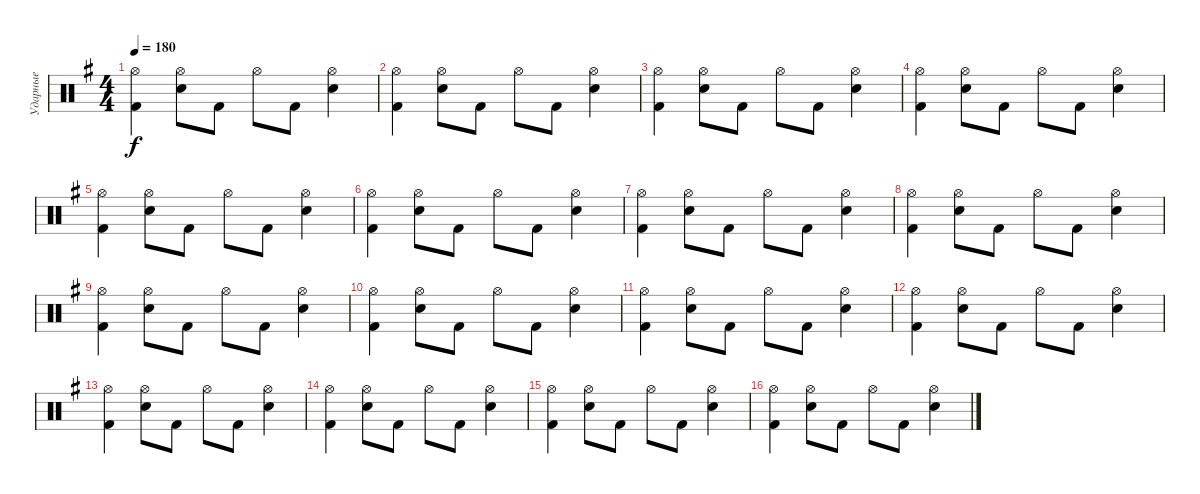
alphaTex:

\track ("Ударные" "Ударные") {instrument percussion}
\staff {score}
\articulation defaults
\ts (4 4)
\tempo 180
\clef neutral
\ks g
("Hi-Hat (open)" "Kick (hit) 2").4{dy f} ("Hi-Hat (open)" "Snare (hit) 2").8 "Kick (hit) 2".8 "Hi-Hat (open)".8 "Kick (hit) 2".8 ("Hi-Hat (open)" "Snare (hit) 2").4 |
("Hi-Hat (open)" "Kick (hit) 2").4 ("Hi-Hat (open)" "Snare (hit) 2").8 "Kick (hit) 2".8 "Hi-Hat (open)".8 "Kick (hit) 2".8 ("Hi-Hat (open)" "Snare (hit) 2").4 |
("Hi-Hat (open)" "Kick (hit) 2").4 ("Hi-Hat (open)" "Snare (hit) 2").8 "Kick (hit) 2".8 "Hi-Hat (open)".8 "Kick (hit) 2".8 ("Hi-Hat (open)" "Snare (hit) 2").4 |
("Hi-Hat (open)" "Kick (hit) 2").4 ("Hi-Hat (open)" "Snare (hit) 2").8 "Kick (hit) 2".8 "Hi-Hat (open)".8 "Kick (hit) 2".8 ("Hi-Hat (open)" "Snare (hit) 2").4 |
("Hi-Hat (open)" "Kick (hit) 2").4 ("Hi-Hat (open)" "Snare (hit) 2").8 "Kick (hit) 2".8 "Hi-Hat (open)".8 "Kick (hit) 2".8 ("Hi-Hat (open)" "Snare (hit) 2").4 |
("Hi-Hat (open)" "Kick (hit) 2").4 ("Hi-Hat (open)" "Snare (hit) 2").8 "Kick (hit) 2".8 "Hi-Hat (open)".8 "Kick (hit) 2".8 ("Hi-Hat (open)" "Snare (hit) 2").4 |
("Hi-Hat (open)" "Kick (hit) 2").4 ("Hi-Hat (open)" "Snare (hit) 2").8 "Kick (hit) 2".8 "Hi-Hat (open)".8 "Kick (hit) 2".8 ("Hi-Hat (open)" "Snare (hit) 2").4 |
("Hi-Hat (open)" "Kick (hit) 2").4 ("Hi-Hat (open)" "Snare (hit) 2").8 "Kick (hit) 2".8 "Hi-Hat (open)".8 "Kick (hit) 2".8 ("Hi-Hat (open)" "Snare (hit) 2").4 |
("Hi-Hat (open)" "Kick (hit) 2").4 ("Hi-Hat (open)" "Snare (hit) 2").8 "Kick (hit) 2".8 "Hi-Hat (open)".8 "Kick (hit) 2".8 ("Hi-Hat (open)" "Snare (hit) 2").4 |
("Hi-Hat (open)" "Kick (hit) 2").4 ("Hi-Hat (open)" "Snare (hit) 2").8 "Kick (hit) 2".8 "Hi-Hat (open)".8 "Kick (hit) 2".8 ("Hi-Hat (open)" "Snare (hit) 2").4 |
("Hi-Hat (open)" "Kick (hit) 2").4 ("Hi-Hat (open)" "Snare (hit) 2").8 "Kick (hit) 2".8 "Hi-Hat (open)".8 "Kick (hit) 2".8 ("Hi-Hat (open)" "Snare (hit) 2").4 |
("Hi-Hat (open)" "Kick (hit) 2").4 ("Hi-Hat (open)" "Snare (hit) 2").8 "Kick (hit) 2".8 "Hi-Hat (open)".8 "Kick (hit) 2".8 ("Hi-Hat (open)" "Snare (hit) 2").4 |
("Hi-Hat (open)" "Kick (hit) 2").4 ("Hi-Hat (open)" "Snare (hit) 2").8 "Kick (hit) 2".8 "Hi-Hat (open)".8 "Kick (hit) 2".8 ("Hi-Hat (open)" "Snare (hit) 2").4 |
("Hi-Hat (open)" "Kick (hit) 2").4 ("Hi-Hat (open)" "Snare (hit) 2").8 "Kick (hit) 2".8 "Hi-Hat (open)".8 "Kick (hit) 2".8 ("Hi-Hat (open)" "Snare (hit) 2").4 |
("Hi-Hat (open)" "Kick (hit) 2").4 ("Hi-Hat (open)" "Snare (hit) 2").8 "Kick (hit) 2".8 "Hi-Hat (open)".8 "Kick (hit) 2".8 ("Hi-Hat (open)" "Snare (hit) 2").4 |
("Hi-Hat (open)" "Kick (hit) 2").4 ("Hi-Hat (open)" "Snare (hit) 2").8 "Kick (hit) 2".8 "Hi-Hat (open)".8 "Kick (hit) 2".8 ("Hi-Hat (open)" "Snare (hit) 2").4
